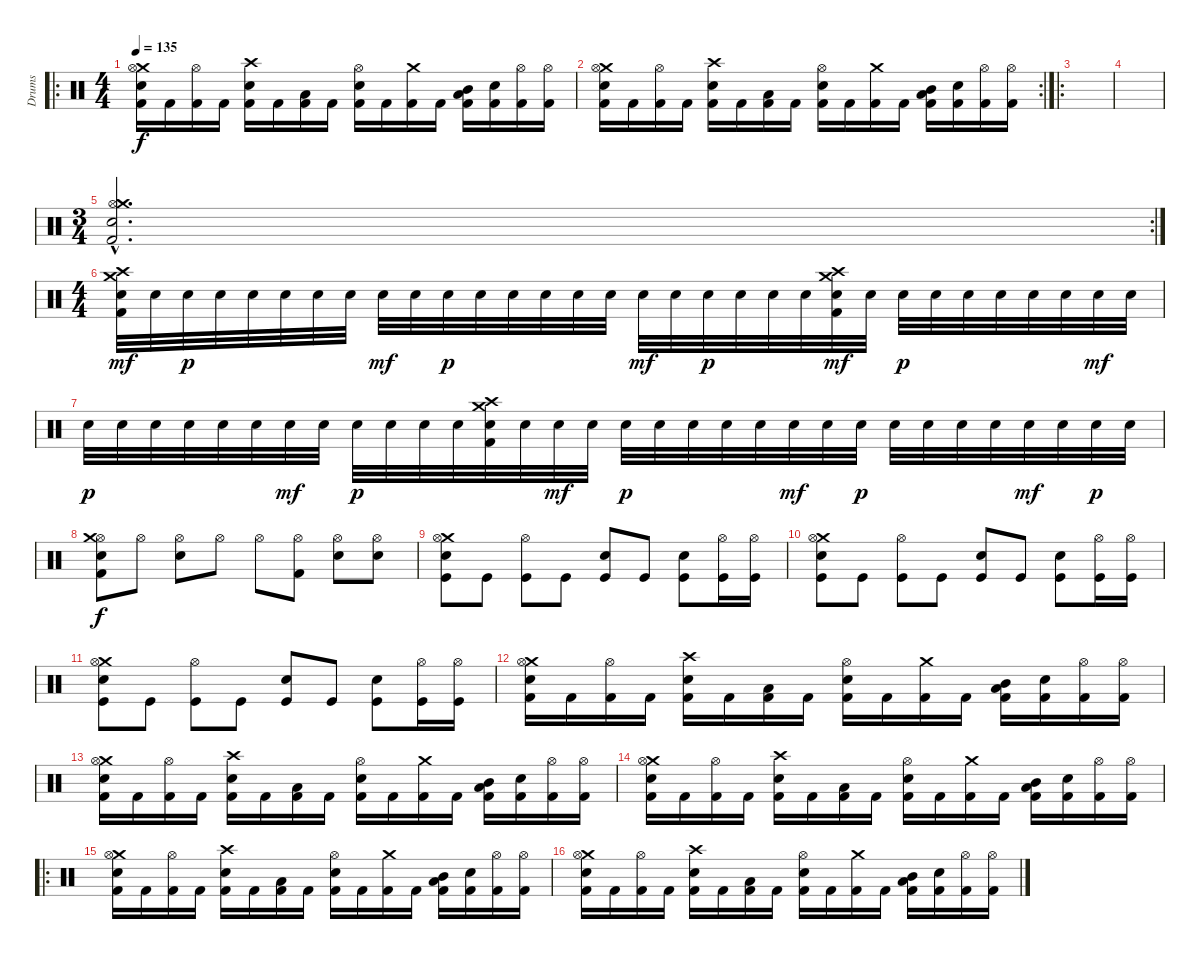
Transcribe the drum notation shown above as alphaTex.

\track ("Drums" "Drums") {instrument percussion}
\staff {score}
\articulation defaults
\ro
\ts (4 4)
\tempo 135
\clef neutral
\ks c
("Kick (hit) 2" "Crash medium (hit)" "Hi-Hat (open)" "Electric Snare (hit)").16{dy f} "Kick (hit) 2".16 ("Kick (hit) 2" "Hi-Hat (open)").16 "Kick (hit) 2".16 ("Kick (hit) 2" "Crash high (hit)" "Electric Snare (hit)").16 "Kick (hit) 2".16 ("Kick (hit) 2" "Low Floor Tom (hit)").16 "Kick (hit) 2".16 ("Kick (hit) 2" "Hi-Hat (open)" "Electric Snare (hit)").16 "Kick (hit) 2".16 ("Kick (hit) 2" "Crash medium (hit)").16 "Kick (hit) 2".16 ("Kick (hit) 2" "Low Floor Tom (hit)" "Mid Tom (hit)").16 ("Kick (hit) 2" "Electric Snare (hit)").16 ("Kick (hit) 2" "Hi-Hat (open)").16 ("Kick (hit) 2" "Hi-Hat (open)").16 |
\rc 2
("Kick (hit) 2" "Crash medium (hit)" "Hi-Hat (open)" "Electric Snare (hit)").16 "Kick (hit) 2".16 ("Kick (hit) 2" "Hi-Hat (open)").16 "Kick (hit) 2".16 ("Kick (hit) 2" "Crash high (hit)" "Electric Snare (hit)").16 "Kick (hit) 2".16 ("Kick (hit) 2" "Low Floor Tom (hit)").16 "Kick (hit) 2".16 ("Kick (hit) 2" "Hi-Hat (open)" "Electric Snare (hit)").16 "Kick (hit) 2".16 ("Kick (hit) 2" "Crash medium (hit)").16 "Kick (hit) 2".16 ("Kick (hit) 2" "Low Floor Tom (hit)" "Mid Tom (hit)").16 ("Kick (hit) 2" "Electric Snare (hit)").16 ("Kick (hit) 2" "Hi-Hat (open)").16 ("Kick (hit) 2" "Hi-Hat (open)").16 |
\ro
|
|
\rc 2
\ts (3 4)
("Hi-Hat (open)"{hac} "Electric Snare (hit)"{hac} "Crash medium (hit)"{hac} "Kick (hit) 2"{hac}).2{d} |
\ts (4 4)
("Crash medium (hit)" "Crash high (hit)" "Electric Snare (hit)" "Kick (hit) 2").32{dy mf} "Electric Snare (hit)".32 "Electric Snare (hit)".32{dy p} "Electric Snare (hit)".32 "Electric Snare (hit)".32 "Electric Snare (hit)".32 "Electric Snare (hit)".32 "Electric Snare (hit)".32 "Electric Snare (hit)".32{dy mf} "Electric Snare (hit)".32 "Electric Snare (hit)".32{dy p} "Electric Snare (hit)".32 "Electric Snare (hit)".32 "Electric Snare (hit)".32 "Electric Snare (hit)".32 "Electric Snare (hit)".32 "Electric Snare (hit)".32{dy mf} "Electric Snare (hit)".32 "Electric Snare (hit)".32{dy p} "Electric Snare (hit)".32 "Electric Snare (hit)".32 "Electric Snare (hit)".32 ("Crash medium (hit)" "Crash high (hit)" "Electric Snare (hit)" "Kick (hit) 2").32{dy mf} "Electric Snare (hit)".32 "Electric Snare (hit)".32{dy p} "Electric Snare (hit)".32 "Electric Snare (hit)".32 "Electric Snare (hit)".32 "Electric Snare (hit)".32 "Electric Snare (hit)".32 "Electric Snare (hit)".32{dy mf} "Electric Snare (hit)".32 |
"Electric Snare (hit)".32{dy p} "Electric Snare (hit)".32 "Electric Snare (hit)".32 "Electric Snare (hit)".32 "Electric Snare (hit)".32 "Electric Snare (hit)".32 "Electric Snare (hit)".32{dy mf} "Electric Snare (hit)".32 "Electric Snare (hit)".32{dy p} "Electric Snare (hit)".32 "Electric Snare (hit)".32 "Electric Snare (hit)".32 ("Crash medium (hit)" "Crash high (hit)" "Electric Snare (hit)" "Kick (hit) 2").32 "Electric Snare (hit)".32 "Electric Snare (hit)".32{dy mf} "Electric Snare (hit)".32 "Electric Snare (hit)".32{dy p} "Electric Snare (hit)".32 "Electric Snare (hit)".32 "Electric Snare (hit)".32 "Electric Snare (hit)".32 "Electric Snare (hit)".32{dy mf} "Electric Snare (hit)".32 "Electric Snare (hit)".32{dy p} "Electric Snare (hit)".32 "Electric Snare (hit)".32 "Electric Snare (hit)".32 "Electric Snare (hit)".32 "Electric Snare (hit)".32{dy mf} "Electric Snare (hit)".32 "Electric Snare (hit)".32{dy p} "Electric Snare (hit)".32 |
("Hi-Hat (open)" "Electric Snare (hit)" "Crash medium (hit)" "Kick (hit) 2").8{dy f} "Hi-Hat (open)".8 ("Hi-Hat (open)" "Electric Snare (hit)").8 "Hi-Hat (open)".8 "Hi-Hat (open)".8 ("Hi-Hat (open)" "Kick (hit) 2").8 ("Hi-Hat (open)" "Electric Snare (hit)").8 ("Hi-Hat (open)" "Electric Snare (hit)").8 |
("Kick (hit)" "Crash medium (hit)" "Hi-Hat (open)" "Electric Snare (hit)").8 "Kick (hit)".8 ("Kick (hit)" "Hi-Hat (open)").8 "Kick (hit)".8 ("Kick (hit)" "Electric Snare (hit)").8 "Kick (hit)".8 ("Kick (hit)" "Electric Snare (hit)").8 ("Kick (hit)" "Hi-Hat (open)").16 ("Kick (hit)" "Hi-Hat (open)").16 |
("Kick (hit)" "Crash medium (hit)" "Hi-Hat (open)" "Electric Snare (hit)").8 "Kick (hit)".8 ("Kick (hit)" "Hi-Hat (open)").8 "Kick (hit)".8 ("Kick (hit)" "Electric Snare (hit)").8 "Kick (hit)".8 ("Kick (hit)" "Electric Snare (hit)").8 ("Kick (hit)" "Hi-Hat (open)").16 ("Kick (hit)" "Hi-Hat (open)").16 |
("Kick (hit)" "Crash medium (hit)" "Hi-Hat (open)" "Electric Snare (hit)").8 "Kick (hit)".8 ("Kick (hit)" "Hi-Hat (open)").8 "Kick (hit)".8 ("Kick (hit)" "Electric Snare (hit)").8 "Kick (hit)".8 ("Kick (hit)" "Electric Snare (hit)").8 ("Kick (hit)" "Hi-Hat (open)").16 ("Kick (hit)" "Hi-Hat (open)").16 |
("Kick (hit) 2" "Crash medium (hit)" "Hi-Hat (open)" "Electric Snare (hit)").16 "Kick (hit) 2".16 ("Kick (hit) 2" "Hi-Hat (open)").16 "Kick (hit) 2".16 ("Kick (hit) 2" "Crash high (hit)" "Electric Snare (hit)").16 "Kick (hit) 2".16 ("Kick (hit) 2" "Low Floor Tom (hit)").16 "Kick (hit) 2".16 ("Kick (hit) 2" "Hi-Hat (open)" "Electric Snare (hit)").16 "Kick (hit) 2".16 ("Kick (hit) 2" "Crash medium (hit)").16 "Kick (hit) 2".16 ("Kick (hit) 2" "Low Floor Tom (hit)" "Mid Tom (hit)").16 ("Kick (hit) 2" "Electric Snare (hit)").16 ("Kick (hit) 2" "Hi-Hat (open)").16 ("Kick (hit) 2" "Hi-Hat (open)").16 |
("Kick (hit) 2" "Crash medium (hit)" "Hi-Hat (open)" "Electric Snare (hit)").16 "Kick (hit) 2".16 ("Kick (hit) 2" "Hi-Hat (open)").16 "Kick (hit) 2".16 ("Kick (hit) 2" "Crash high (hit)" "Electric Snare (hit)").16 "Kick (hit) 2".16 ("Kick (hit) 2" "Low Floor Tom (hit)").16 "Kick (hit) 2".16 ("Kick (hit) 2" "Hi-Hat (open)" "Electric Snare (hit)").16 "Kick (hit) 2".16 ("Kick (hit) 2" "Crash medium (hit)").16 "Kick (hit) 2".16 ("Kick (hit) 2" "Low Floor Tom (hit)" "Mid Tom (hit)").16 ("Kick (hit) 2" "Electric Snare (hit)").16 ("Kick (hit) 2" "Hi-Hat (open)").16 ("Kick (hit) 2" "Hi-Hat (open)").16 |
("Kick (hit) 2" "Crash medium (hit)" "Hi-Hat (open)" "Electric Snare (hit)").16 "Kick (hit) 2".16 ("Kick (hit) 2" "Hi-Hat (open)").16 "Kick (hit) 2".16 ("Kick (hit) 2" "Crash high (hit)" "Electric Snare (hit)").16 "Kick (hit) 2".16 ("Kick (hit) 2" "Low Floor Tom (hit)").16 "Kick (hit) 2".16 ("Kick (hit) 2" "Hi-Hat (open)" "Electric Snare (hit)").16 "Kick (hit) 2".16 ("Kick (hit) 2" "Crash medium (hit)").16 "Kick (hit) 2".16 ("Kick (hit) 2" "Low Floor Tom (hit)" "Mid Tom (hit)").16 ("Kick (hit) 2" "Electric Snare (hit)").16 ("Kick (hit) 2" "Hi-Hat (open)").16 ("Kick (hit) 2" "Hi-Hat (open)").16 |
\ro
("Kick (hit) 2" "Crash medium (hit)" "Hi-Hat (open)" "Electric Snare (hit)").16 "Kick (hit) 2".16 ("Kick (hit) 2" "Hi-Hat (open)").16 "Kick (hit) 2".16 ("Kick (hit) 2" "Crash high (hit)" "Electric Snare (hit)").16 "Kick (hit) 2".16 ("Kick (hit) 2" "Low Floor Tom (hit)").16 "Kick (hit) 2".16 ("Kick (hit) 2" "Hi-Hat (open)" "Electric Snare (hit)").16 "Kick (hit) 2".16 ("Kick (hit) 2" "Crash medium (hit)").16 "Kick (hit) 2".16 ("Kick (hit) 2" "Low Floor Tom (hit)" "Mid Tom (hit)").16 ("Kick (hit) 2" "Electric Snare (hit)").16 ("Kick (hit) 2" "Hi-Hat (open)").16 ("Kick (hit) 2" "Hi-Hat (open)").16 |
("Kick (hit) 2" "Crash medium (hit)" "Hi-Hat (open)" "Electric Snare (hit)").16 "Kick (hit) 2".16 ("Kick (hit) 2" "Hi-Hat (open)").16 "Kick (hit) 2".16 ("Kick (hit) 2" "Crash high (hit)" "Electric Snare (hit)").16 "Kick (hit) 2".16 ("Kick (hit) 2" "Low Floor Tom (hit)").16 "Kick (hit) 2".16 ("Kick (hit) 2" "Hi-Hat (open)" "Electric Snare (hit)").16 "Kick (hit) 2".16 ("Kick (hit) 2" "Crash medium (hit)").16 "Kick (hit) 2".16 ("Kick (hit) 2" "Low Floor Tom (hit)" "Mid Tom (hit)").16 ("Kick (hit) 2" "Electric Snare (hit)").16 ("Kick (hit) 2" "Hi-Hat (open)").16 ("Kick (hit) 2" "Hi-Hat (open)").16
